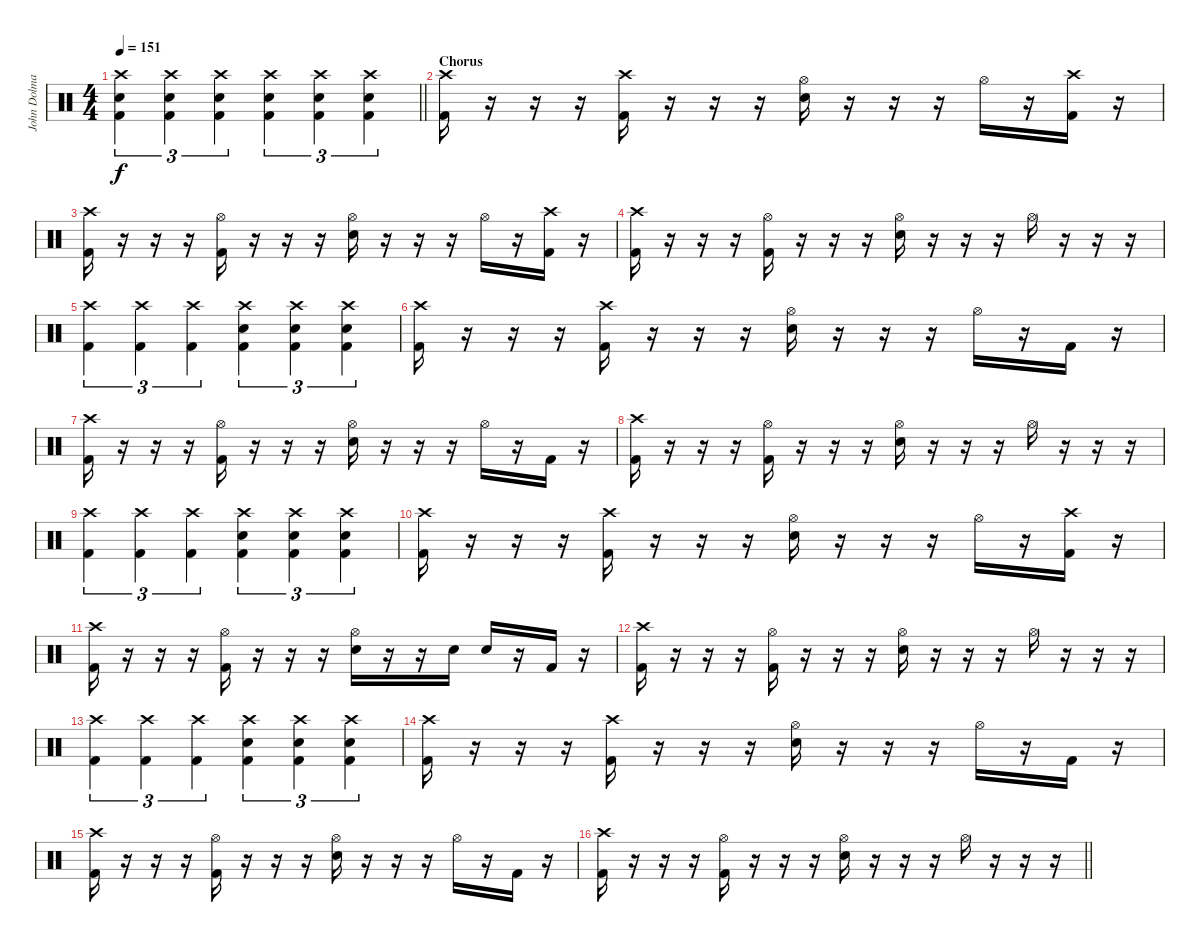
\track ("John Dolmayan" "John Dolma") {instrument percussion}
\staff {score}
\articulation defaults
\ts (4 4)
\tempo 151
\clef neutral
\barLineRight lightlight
\ks c
("Crash high (hit)" "Snare (hit) 2" "Kick (hit) 2").4{tu (3 2) dy f} ("Crash high (hit)" "Snare (hit) 2" "Kick (hit) 2").4{tu (3 2)} ("Crash high (hit)" "Snare (hit) 2" "Kick (hit) 2").4{tu (3 2)} ("Crash high (hit)" "Snare (hit) 2" "Kick (hit) 2").4{tu (3 2)} ("Crash high (hit)" "Snare (hit) 2" "Kick (hit) 2").4{tu (3 2)} ("Crash high (hit)" "Snare (hit) 2" "Kick (hit) 2").4{tu (3 2)} |
\section ("" "Chorus")
("Crash high (hit)" "Kick (hit) 2").16 r.16 r.16 r.16 ("Crash high (hit)" "Kick (hit) 2").16 r.16 r.16 r.16 ("Hi-Hat (open)" "Snare (hit) 2").16 r.16 r.16 r.16 "Hi-Hat (open)".16 r.16 ("Crash high (hit)" "Kick (hit) 2").16 r.16 |
("Crash high (hit)" "Kick (hit) 2").16 r.16 r.16 r.16 ("Hi-Hat (open)" "Kick (hit) 2").16 r.16 r.16 r.16 ("Hi-Hat (open)" "Snare (hit) 2").16 r.16 r.16 r.16 "Hi-Hat (open)".16 r.16 ("Crash high (hit)" "Kick (hit) 2").16 r.16 |
("Crash high (hit)" "Kick (hit) 2").16 r.16 r.16 r.16 ("Hi-Hat (open)" "Kick (hit) 2").16 r.16 r.16 r.16 ("Hi-Hat (open)" "Snare (hit) 2").16 r.16 r.16 r.16 "Hi-Hat (open)".16 r.16 r.16 r.16 |
("Crash high (hit)" "Kick (hit) 2").4{tu (3 2)} ("Crash high (hit)" "Kick (hit) 2").4{tu (3 2)} ("Crash high (hit)" "Kick (hit) 2").4{tu (3 2)} ("Crash high (hit)" "Snare (hit) 2" "Kick (hit) 2").4{tu (3 2)} ("Crash high (hit)" "Snare (hit) 2" "Kick (hit) 2").4{tu (3 2)} ("Crash high (hit)" "Snare (hit) 2" "Kick (hit) 2").4{tu (3 2)} |
("Crash high (hit)" "Kick (hit) 2").16 r.16 r.16 r.16 ("Crash high (hit)" "Kick (hit) 2").16 r.16 r.16 r.16 ("Hi-Hat (open)" "Snare (hit) 2").16 r.16 r.16 r.16 "Hi-Hat (open)".16 r.16 "Kick (hit) 2".16 r.16 |
("Crash high (hit)" "Kick (hit) 2").16 r.16 r.16 r.16 ("Hi-Hat (open)" "Kick (hit) 2").16 r.16 r.16 r.16 ("Hi-Hat (open)" "Snare (hit) 2").16 r.16 r.16 r.16 "Hi-Hat (open)".16 r.16 "Kick (hit) 2".16 r.16 |
("Crash high (hit)" "Kick (hit) 2").16 r.16 r.16 r.16 ("Hi-Hat (open)" "Kick (hit) 2").16 r.16 r.16 r.16 ("Hi-Hat (open)" "Snare (hit) 2").16 r.16 r.16 r.16 "Hi-Hat (open)".16 r.16 r.16 r.16 |
("Crash high (hit)" "Kick (hit) 2").4{tu (3 2)} ("Crash high (hit)" "Kick (hit) 2").4{tu (3 2)} ("Crash high (hit)" "Kick (hit) 2").4{tu (3 2)} ("Crash high (hit)" "Snare (hit) 2" "Kick (hit) 2").4{tu (3 2)} ("Crash high (hit)" "Snare (hit) 2" "Kick (hit) 2").4{tu (3 2)} ("Crash high (hit)" "Snare (hit) 2" "Kick (hit) 2").4{tu (3 2)} |
("Crash high (hit)" "Kick (hit) 2").16 r.16 r.16 r.16 ("Crash high (hit)" "Kick (hit) 2").16 r.16 r.16 r.16 ("Hi-Hat (open)" "Snare (hit) 2").16 r.16 r.16 r.16 "Hi-Hat (open)".16 r.16 ("Crash high (hit)" "Kick (hit) 2").16 r.16 |
("Crash high (hit)" "Kick (hit) 2").16 r.16 r.16 r.16 ("Hi-Hat (open)" "Kick (hit) 2").16 r.16 r.16 r.16 ("Hi-Hat (open)" "Snare (hit) 2").16 r.16 r.16 "Snare (hit) 2".16 "Snare (hit) 2".16 r.16 "Kick (hit) 2".16 r.16 |
("Crash high (hit)" "Kick (hit) 2").16 r.16 r.16 r.16 ("Hi-Hat (open)" "Kick (hit) 2").16 r.16 r.16 r.16 ("Hi-Hat (open)" "Snare (hit) 2").16 r.16 r.16 r.16 "Hi-Hat (open)".16 r.16 r.16 r.16 |
("Crash high (hit)" "Kick (hit) 2").4{tu (3 2)} ("Crash high (hit)" "Kick (hit) 2").4{tu (3 2)} ("Crash high (hit)" "Kick (hit) 2").4{tu (3 2)} ("Crash high (hit)" "Snare (hit) 2" "Kick (hit) 2").4{tu (3 2)} ("Crash high (hit)" "Snare (hit) 2" "Kick (hit) 2").4{tu (3 2)} ("Crash high (hit)" "Snare (hit) 2" "Kick (hit) 2").4{tu (3 2)} |
("Crash high (hit)" "Kick (hit) 2").16 r.16 r.16 r.16 ("Crash high (hit)" "Kick (hit) 2").16 r.16 r.16 r.16 ("Hi-Hat (open)" "Snare (hit) 2").16 r.16 r.16 r.16 "Hi-Hat (open)".16 r.16 "Kick (hit) 2".16 r.16 |
("Crash high (hit)" "Kick (hit) 2").16 r.16 r.16 r.16 ("Hi-Hat (open)" "Kick (hit) 2").16 r.16 r.16 r.16 ("Hi-Hat (open)" "Snare (hit) 2").16 r.16 r.16 r.16 "Hi-Hat (open)".16 r.16 "Kick (hit) 2".16 r.16 |
\barLineRight lightlight
("Crash high (hit)" "Kick (hit) 2").16 r.16 r.16 r.16 ("Hi-Hat (open)" "Kick (hit) 2").16 r.16 r.16 r.16 ("Hi-Hat (open)" "Snare (hit) 2").16 r.16 r.16 r.16 "Hi-Hat (open)".16 r.16 r.16 r.16
